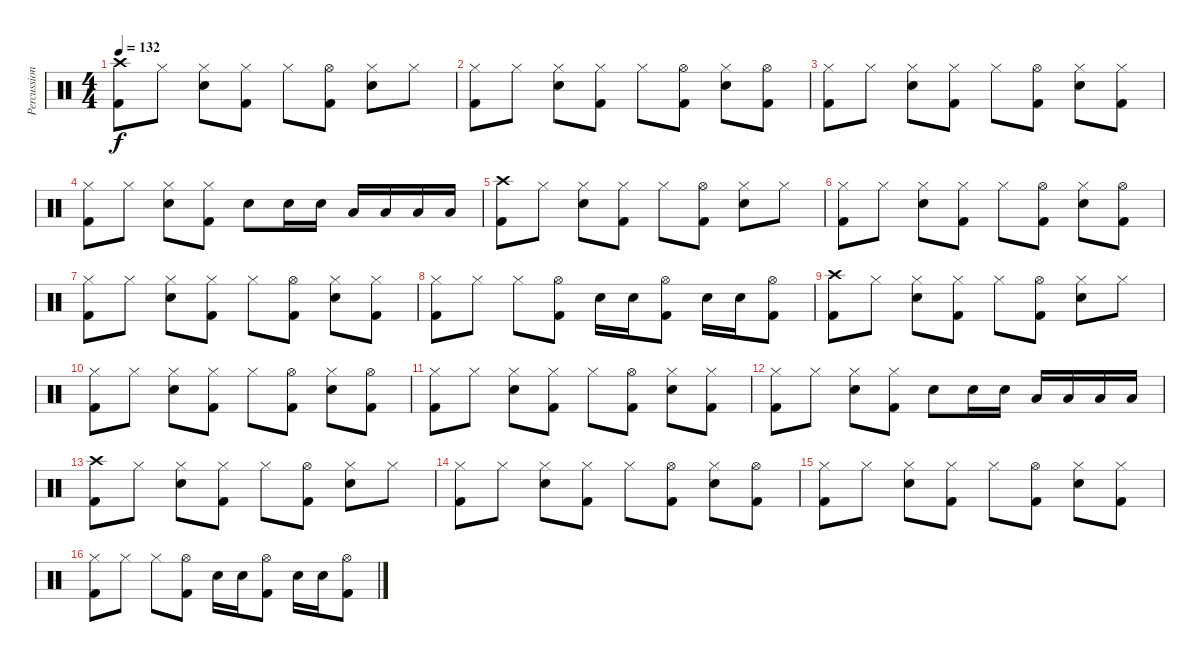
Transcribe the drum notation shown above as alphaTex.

\track ("Percussioni" "Percussion") {instrument percussion}
\staff {score}
\articulation defaults
\ts (4 4)
\tempo 132
\clef neutral
\ks c
("Crash high (hit)" "Kick (hit) 2").8{dy f} "Hi-Hat (closed)".8 ("Hi-Hat (closed)" "Snare (hit) 2").8 ("Hi-Hat (closed)" "Kick (hit) 2").8 "Hi-Hat (closed)".8 ("Hi-Hat (open)" "Kick (hit) 2").8 ("Hi-Hat (closed)" "Snare (hit) 2").8 "Hi-Hat (closed)".8 |
("Hi-Hat (closed)" "Kick (hit) 2").8 "Hi-Hat (closed)".8 ("Hi-Hat (closed)" "Snare (hit) 2").8 ("Hi-Hat (closed)" "Kick (hit) 2").8 "Hi-Hat (closed)".8 ("Hi-Hat (open)" "Kick (hit) 2").8 ("Hi-Hat (closed)" "Snare (hit) 2").8 ("Hi-Hat (open)" "Kick (hit) 2").8 |
("Hi-Hat (closed)" "Kick (hit) 2").8 "Hi-Hat (closed)".8 ("Hi-Hat (closed)" "Snare (hit) 2").8 ("Hi-Hat (closed)" "Kick (hit) 2").8 "Hi-Hat (closed)".8 ("Hi-Hat (open)" "Kick (hit) 2").8 ("Hi-Hat (closed)" "Snare (hit) 2").8 ("Hi-Hat (closed)" "Kick (hit) 2").8 |
("Hi-Hat (closed)" "Kick (hit) 2").8 "Hi-Hat (closed)".8 ("Hi-Hat (closed)" "Snare (hit) 2").8 ("Hi-Hat (closed)" "Kick (hit) 2").8 "Snare (hit) 2".8 "Snare (hit) 2".16 "Snare (hit) 2".16 "Low Floor Tom (hit)".16 "Low Floor Tom (hit)".16 "Low Floor Tom (hit)".16 "Low Floor Tom (hit)".16 |
("Crash high (hit)" "Kick (hit) 2").8 "Hi-Hat (closed)".8 ("Hi-Hat (closed)" "Snare (hit) 2").8 ("Hi-Hat (closed)" "Kick (hit) 2").8 "Hi-Hat (closed)".8 ("Hi-Hat (open)" "Kick (hit) 2").8 ("Hi-Hat (closed)" "Snare (hit) 2").8 "Hi-Hat (closed)".8 |
("Hi-Hat (closed)" "Kick (hit) 2").8 "Hi-Hat (closed)".8 ("Hi-Hat (closed)" "Snare (hit) 2").8 ("Hi-Hat (closed)" "Kick (hit) 2").8 "Hi-Hat (closed)".8 ("Hi-Hat (open)" "Kick (hit) 2").8 ("Hi-Hat (closed)" "Snare (hit) 2").8 ("Hi-Hat (open)" "Kick (hit) 2").8 |
("Hi-Hat (closed)" "Kick (hit) 2").8 "Hi-Hat (closed)".8 ("Hi-Hat (closed)" "Snare (hit) 2").8 ("Hi-Hat (closed)" "Kick (hit) 2").8 "Hi-Hat (closed)".8 ("Hi-Hat (open)" "Kick (hit) 2").8 ("Hi-Hat (closed)" "Snare (hit) 2").8 ("Hi-Hat (closed)" "Kick (hit) 2").8 |
("Hi-Hat (closed)" "Kick (hit) 2").8 "Hi-Hat (closed)".8 "Hi-Hat (closed)".8 ("Hi-Hat (open)" "Kick (hit) 2").8 "Snare (hit) 2".16 "Snare (hit) 2".16 ("Hi-Hat (open)" "Kick (hit) 2").8 "Snare (hit) 2".16 "Snare (hit) 2".16 ("Hi-Hat (open)" "Kick (hit) 2").8 |
("Crash high (hit)" "Kick (hit) 2").8 "Hi-Hat (closed)".8 ("Hi-Hat (closed)" "Snare (hit) 2").8 ("Hi-Hat (closed)" "Kick (hit) 2").8 "Hi-Hat (closed)".8 ("Hi-Hat (open)" "Kick (hit) 2").8 ("Hi-Hat (closed)" "Snare (hit) 2").8 "Hi-Hat (closed)".8 |
("Hi-Hat (closed)" "Kick (hit) 2").8 "Hi-Hat (closed)".8 ("Hi-Hat (closed)" "Snare (hit) 2").8 ("Hi-Hat (closed)" "Kick (hit) 2").8 "Hi-Hat (closed)".8 ("Hi-Hat (open)" "Kick (hit) 2").8 ("Hi-Hat (closed)" "Snare (hit) 2").8 ("Hi-Hat (open)" "Kick (hit) 2").8 |
("Hi-Hat (closed)" "Kick (hit) 2").8 "Hi-Hat (closed)".8 ("Hi-Hat (closed)" "Snare (hit) 2").8 ("Hi-Hat (closed)" "Kick (hit) 2").8 "Hi-Hat (closed)".8 ("Hi-Hat (open)" "Kick (hit) 2").8 ("Hi-Hat (closed)" "Snare (hit) 2").8 ("Hi-Hat (closed)" "Kick (hit) 2").8 |
("Hi-Hat (closed)" "Kick (hit) 2").8 "Hi-Hat (closed)".8 ("Hi-Hat (closed)" "Snare (hit) 2").8 ("Hi-Hat (closed)" "Kick (hit) 2").8 "Snare (hit) 2".8 "Snare (hit) 2".16 "Snare (hit) 2".16 "Low Floor Tom (hit)".16 "Low Floor Tom (hit)".16 "Low Floor Tom (hit)".16 "Low Floor Tom (hit)".16 |
("Crash high (hit)" "Kick (hit) 2").8 "Hi-Hat (closed)".8 ("Hi-Hat (closed)" "Snare (hit) 2").8 ("Hi-Hat (closed)" "Kick (hit) 2").8 "Hi-Hat (closed)".8 ("Hi-Hat (open)" "Kick (hit) 2").8 ("Hi-Hat (closed)" "Snare (hit) 2").8 "Hi-Hat (closed)".8 |
("Hi-Hat (closed)" "Kick (hit) 2").8 "Hi-Hat (closed)".8 ("Hi-Hat (closed)" "Snare (hit) 2").8 ("Hi-Hat (closed)" "Kick (hit) 2").8 "Hi-Hat (closed)".8 ("Hi-Hat (open)" "Kick (hit) 2").8 ("Hi-Hat (closed)" "Snare (hit) 2").8 ("Hi-Hat (open)" "Kick (hit) 2").8 |
("Hi-Hat (closed)" "Kick (hit) 2").8 "Hi-Hat (closed)".8 ("Hi-Hat (closed)" "Snare (hit) 2").8 ("Hi-Hat (closed)" "Kick (hit) 2").8 "Hi-Hat (closed)".8 ("Hi-Hat (open)" "Kick (hit) 2").8 ("Hi-Hat (closed)" "Snare (hit) 2").8 ("Hi-Hat (closed)" "Kick (hit) 2").8 |
("Hi-Hat (closed)" "Kick (hit) 2").8 "Hi-Hat (closed)".8 "Hi-Hat (closed)".8 ("Hi-Hat (open)" "Kick (hit) 2").8 "Snare (hit) 2".16 "Snare (hit) 2".16 ("Hi-Hat (open)" "Kick (hit) 2").8 "Snare (hit) 2".16 "Snare (hit) 2".16 ("Hi-Hat (open)" "Kick (hit) 2").8
